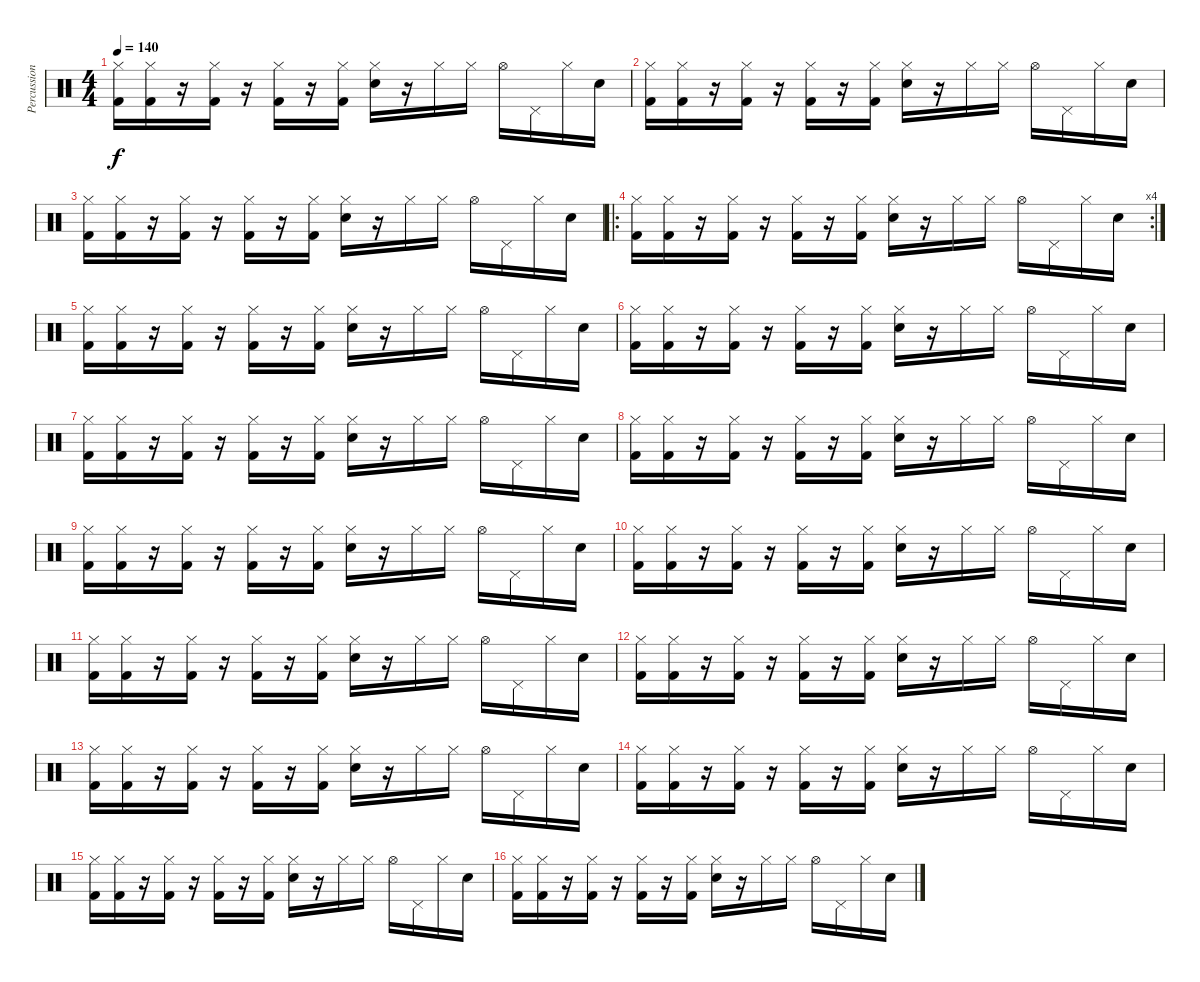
\track ("Percussion" "Percussion") {instrument percussion}
\staff {score}
\articulation defaults
\ts (4 4)
\tempo 140
\clef neutral
\ks c
("Hi-Hat (closed)" "Kick (hit) 2").16{dy f} ("Hi-Hat (closed)" "Kick (hit) 2").16 r.16 ("Hi-Hat (closed)" "Kick (hit) 2").16 r.16 ("Hi-Hat (closed)" "Kick (hit) 2").16 r.16 ("Hi-Hat (closed)" "Kick (hit) 2").16 ("Hi-Hat (closed)" "Electric Snare (hit)").16 r.16 "Hi-Hat (closed)".16 "Hi-Hat (closed)".16 "Hi-Hat (open)".16 "Pedal Hi-Hat (hit)".16 "Hi-Hat (closed)".16 "Electric Snare (hit)".16 |
("Hi-Hat (closed)" "Kick (hit) 2").16 ("Hi-Hat (closed)" "Kick (hit) 2").16 r.16 ("Hi-Hat (closed)" "Kick (hit) 2").16 r.16 ("Hi-Hat (closed)" "Kick (hit) 2").16 r.16 ("Hi-Hat (closed)" "Kick (hit) 2").16 ("Hi-Hat (closed)" "Electric Snare (hit)").16 r.16 "Hi-Hat (closed)".16 "Hi-Hat (closed)".16 "Hi-Hat (open)".16 "Pedal Hi-Hat (hit)".16 "Hi-Hat (closed)".16 "Electric Snare (hit)".16 |
("Hi-Hat (closed)" "Kick (hit) 2").16 ("Hi-Hat (closed)" "Kick (hit) 2").16 r.16 ("Hi-Hat (closed)" "Kick (hit) 2").16 r.16 ("Hi-Hat (closed)" "Kick (hit) 2").16 r.16 ("Hi-Hat (closed)" "Kick (hit) 2").16 ("Hi-Hat (closed)" "Electric Snare (hit)").16 r.16 "Hi-Hat (closed)".16 "Hi-Hat (closed)".16 "Hi-Hat (open)".16 "Pedal Hi-Hat (hit)".16 "Hi-Hat (closed)".16 "Electric Snare (hit)".16 |
\ro
\rc 4
("Hi-Hat (closed)" "Kick (hit) 2").16 ("Hi-Hat (closed)" "Kick (hit) 2").16 r.16 ("Hi-Hat (closed)" "Kick (hit) 2").16 r.16 ("Hi-Hat (closed)" "Kick (hit) 2").16 r.16 ("Hi-Hat (closed)" "Kick (hit) 2").16 ("Hi-Hat (closed)" "Electric Snare (hit)").16 r.16 "Hi-Hat (closed)".16 "Hi-Hat (closed)".16 "Hi-Hat (open)".16 "Pedal Hi-Hat (hit)".16 "Hi-Hat (closed)".16 "Electric Snare (hit)".16 |
("Hi-Hat (closed)" "Kick (hit) 2").16 ("Hi-Hat (closed)" "Kick (hit) 2").16 r.16 ("Hi-Hat (closed)" "Kick (hit) 2").16 r.16 ("Hi-Hat (closed)" "Kick (hit) 2").16 r.16 ("Hi-Hat (closed)" "Kick (hit) 2").16 ("Hi-Hat (closed)" "Electric Snare (hit)").16 r.16 "Hi-Hat (closed)".16 "Hi-Hat (closed)".16 "Hi-Hat (open)".16 "Pedal Hi-Hat (hit)".16 "Hi-Hat (closed)".16 "Electric Snare (hit)".16 |
("Hi-Hat (closed)" "Kick (hit) 2").16 ("Hi-Hat (closed)" "Kick (hit) 2").16 r.16 ("Hi-Hat (closed)" "Kick (hit) 2").16 r.16 ("Hi-Hat (closed)" "Kick (hit) 2").16 r.16 ("Hi-Hat (closed)" "Kick (hit) 2").16 ("Hi-Hat (closed)" "Electric Snare (hit)").16 r.16 "Hi-Hat (closed)".16 "Hi-Hat (closed)".16 "Hi-Hat (open)".16 "Pedal Hi-Hat (hit)".16 "Hi-Hat (closed)".16 "Electric Snare (hit)".16 |
("Hi-Hat (closed)" "Kick (hit) 2").16 ("Hi-Hat (closed)" "Kick (hit) 2").16 r.16 ("Hi-Hat (closed)" "Kick (hit) 2").16 r.16 ("Hi-Hat (closed)" "Kick (hit) 2").16 r.16 ("Hi-Hat (closed)" "Kick (hit) 2").16 ("Hi-Hat (closed)" "Electric Snare (hit)").16 r.16 "Hi-Hat (closed)".16 "Hi-Hat (closed)".16 "Hi-Hat (open)".16 "Pedal Hi-Hat (hit)".16 "Hi-Hat (closed)".16 "Electric Snare (hit)".16 |
("Hi-Hat (closed)" "Kick (hit) 2").16 ("Hi-Hat (closed)" "Kick (hit) 2").16 r.16 ("Hi-Hat (closed)" "Kick (hit) 2").16 r.16 ("Hi-Hat (closed)" "Kick (hit) 2").16 r.16 ("Hi-Hat (closed)" "Kick (hit) 2").16 ("Hi-Hat (closed)" "Electric Snare (hit)").16 r.16 "Hi-Hat (closed)".16 "Hi-Hat (closed)".16 "Hi-Hat (open)".16 "Pedal Hi-Hat (hit)".16 "Hi-Hat (closed)".16 "Electric Snare (hit)".16 |
("Hi-Hat (closed)" "Kick (hit) 2").16 ("Hi-Hat (closed)" "Kick (hit) 2").16 r.16 ("Hi-Hat (closed)" "Kick (hit) 2").16 r.16 ("Hi-Hat (closed)" "Kick (hit) 2").16 r.16 ("Hi-Hat (closed)" "Kick (hit) 2").16 ("Hi-Hat (closed)" "Electric Snare (hit)").16 r.16 "Hi-Hat (closed)".16 "Hi-Hat (closed)".16 "Hi-Hat (open)".16 "Pedal Hi-Hat (hit)".16 "Hi-Hat (closed)".16 "Electric Snare (hit)".16 |
("Hi-Hat (closed)" "Kick (hit) 2").16 ("Hi-Hat (closed)" "Kick (hit) 2").16 r.16 ("Hi-Hat (closed)" "Kick (hit) 2").16 r.16 ("Hi-Hat (closed)" "Kick (hit) 2").16 r.16 ("Hi-Hat (closed)" "Kick (hit) 2").16 ("Hi-Hat (closed)" "Electric Snare (hit)").16 r.16 "Hi-Hat (closed)".16 "Hi-Hat (closed)".16 "Hi-Hat (open)".16 "Pedal Hi-Hat (hit)".16 "Hi-Hat (closed)".16 "Electric Snare (hit)".16 |
("Hi-Hat (closed)" "Kick (hit) 2").16 ("Hi-Hat (closed)" "Kick (hit) 2").16 r.16 ("Hi-Hat (closed)" "Kick (hit) 2").16 r.16 ("Hi-Hat (closed)" "Kick (hit) 2").16 r.16 ("Hi-Hat (closed)" "Kick (hit) 2").16 ("Hi-Hat (closed)" "Electric Snare (hit)").16 r.16 "Hi-Hat (closed)".16 "Hi-Hat (closed)".16 "Hi-Hat (open)".16 "Pedal Hi-Hat (hit)".16 "Hi-Hat (closed)".16 "Electric Snare (hit)".16 |
("Hi-Hat (closed)" "Kick (hit) 2").16 ("Hi-Hat (closed)" "Kick (hit) 2").16 r.16 ("Hi-Hat (closed)" "Kick (hit) 2").16 r.16 ("Hi-Hat (closed)" "Kick (hit) 2").16 r.16 ("Hi-Hat (closed)" "Kick (hit) 2").16 ("Hi-Hat (closed)" "Electric Snare (hit)").16 r.16 "Hi-Hat (closed)".16 "Hi-Hat (closed)".16 "Hi-Hat (open)".16 "Pedal Hi-Hat (hit)".16 "Hi-Hat (closed)".16 "Electric Snare (hit)".16 |
("Hi-Hat (closed)" "Kick (hit) 2").16 ("Hi-Hat (closed)" "Kick (hit) 2").16 r.16 ("Hi-Hat (closed)" "Kick (hit) 2").16 r.16 ("Hi-Hat (closed)" "Kick (hit) 2").16 r.16 ("Hi-Hat (closed)" "Kick (hit) 2").16 ("Hi-Hat (closed)" "Electric Snare (hit)").16 r.16 "Hi-Hat (closed)".16 "Hi-Hat (closed)".16 "Hi-Hat (open)".16 "Pedal Hi-Hat (hit)".16 "Hi-Hat (closed)".16 "Electric Snare (hit)".16 |
("Hi-Hat (closed)" "Kick (hit) 2").16 ("Hi-Hat (closed)" "Kick (hit) 2").16 r.16 ("Hi-Hat (closed)" "Kick (hit) 2").16 r.16 ("Hi-Hat (closed)" "Kick (hit) 2").16 r.16 ("Hi-Hat (closed)" "Kick (hit) 2").16 ("Hi-Hat (closed)" "Electric Snare (hit)").16 r.16 "Hi-Hat (closed)".16 "Hi-Hat (closed)".16 "Hi-Hat (open)".16 "Pedal Hi-Hat (hit)".16 "Hi-Hat (closed)".16 "Electric Snare (hit)".16 |
("Hi-Hat (closed)" "Kick (hit) 2").16 ("Hi-Hat (closed)" "Kick (hit) 2").16 r.16 ("Hi-Hat (closed)" "Kick (hit) 2").16 r.16 ("Hi-Hat (closed)" "Kick (hit) 2").16 r.16 ("Hi-Hat (closed)" "Kick (hit) 2").16 ("Hi-Hat (closed)" "Electric Snare (hit)").16 r.16 "Hi-Hat (closed)".16 "Hi-Hat (closed)".16 "Hi-Hat (open)".16 "Pedal Hi-Hat (hit)".16 "Hi-Hat (closed)".16 "Electric Snare (hit)".16 |
("Hi-Hat (closed)" "Kick (hit) 2").16 ("Hi-Hat (closed)" "Kick (hit) 2").16 r.16 ("Hi-Hat (closed)" "Kick (hit) 2").16 r.16 ("Hi-Hat (closed)" "Kick (hit) 2").16 r.16 ("Hi-Hat (closed)" "Kick (hit) 2").16 ("Hi-Hat (closed)" "Electric Snare (hit)").16 r.16 "Hi-Hat (closed)".16 "Hi-Hat (closed)".16 "Hi-Hat (open)".16 "Pedal Hi-Hat (hit)".16 "Hi-Hat (closed)".16 "Electric Snare (hit)".16
